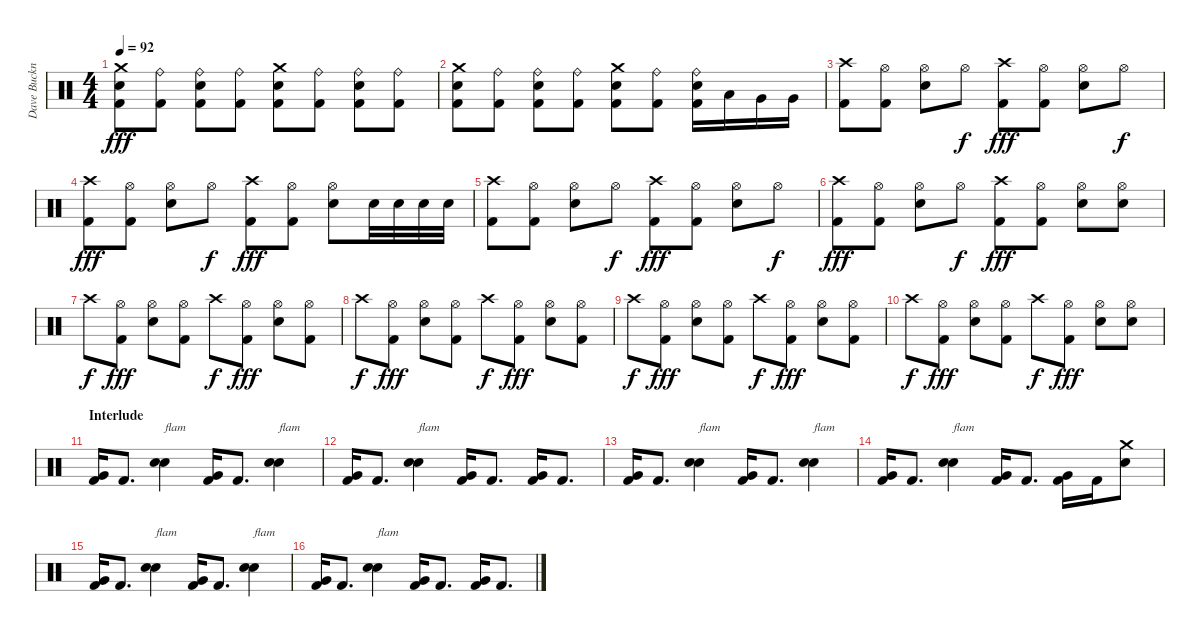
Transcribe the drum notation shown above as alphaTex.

\track ("Dave Buckner" "Dave Buckn") {instrument percussion}
\staff {score}
\articulation defaults
\ts (4 4)
\tempo 92
\clef neutral
\ks c
("Crash medium (hit)" "Electric Snare (hit)" "Kick (hit) 2").8{dy fff} ("Ride (bell)" "Kick (hit) 2").8 ("Ride (bell)" "Electric Snare (hit)" "Kick (hit) 2").8 ("Ride (bell)" "Kick (hit) 2").8 ("Crash medium (hit)" "Electric Snare (hit)" "Kick (hit) 2").8 ("Ride (bell)" "Kick (hit) 2").8 ("Ride (bell)" "Electric Snare (hit)" "Kick (hit) 2").8 ("Ride (bell)" "Kick (hit) 2").8 |
("Crash medium (hit)" "Electric Snare (hit)" "Kick (hit) 2").8 ("Ride (bell)" "Kick (hit) 2").8 ("Ride (bell)" "Electric Snare (hit)" "Kick (hit) 2").8 ("Ride (bell)" "Kick (hit) 2").8 ("Crash medium (hit)" "Electric Snare (hit)" "Kick (hit) 2").8 ("Ride (bell)" "Kick (hit) 2").8 ("Ride (bell)" "Electric Snare (hit)" "Kick (hit) 2").16 "Low Tom (hit)".16 "Very Low Tom (hit)".16 "Very Low Tom (hit)".16 |
("Crash high (hit)" "Kick (hit) 2").8 ("Hi-Hat (open)" "Kick (hit) 2").8 ("Hi-Hat (open)" "Electric Snare (hit)").8 "Hi-Hat (open)".8{dy f} ("Crash high (hit)" "Kick (hit) 2").8{dy fff} ("Hi-Hat (open)" "Kick (hit) 2").8 ("Hi-Hat (open)" "Electric Snare (hit)").8 "Hi-Hat (open)".8{dy f} |
("Crash high (hit)" "Kick (hit) 2").8{dy fff} ("Hi-Hat (open)" "Kick (hit) 2").8 ("Hi-Hat (open)" "Electric Snare (hit)").8 "Hi-Hat (open)".8{dy f} ("Crash high (hit)" "Kick (hit) 2").8{dy fff} ("Hi-Hat (open)" "Kick (hit) 2").8 ("Hi-Hat (open)" "Electric Snare (hit)").8 "Electric Snare (hit)".32 "Electric Snare (hit)".32 "Electric Snare (hit)".32 "Electric Snare (hit)".32 |
("Crash high (hit)" "Kick (hit) 2").8 ("Hi-Hat (open)" "Kick (hit) 2").8 ("Hi-Hat (open)" "Electric Snare (hit)").8 "Hi-Hat (open)".8{dy f} ("Crash high (hit)" "Kick (hit) 2").8{dy fff} ("Hi-Hat (open)" "Kick (hit) 2").8 ("Hi-Hat (open)" "Electric Snare (hit)").8 "Hi-Hat (open)".8{dy f} |
("Crash high (hit)" "Kick (hit) 2").8{dy fff} ("Hi-Hat (open)" "Kick (hit) 2").8 ("Hi-Hat (open)" "Electric Snare (hit)").8 "Hi-Hat (open)".8{dy f} ("Crash high (hit)" "Kick (hit) 2").8{dy fff} ("Hi-Hat (open)" "Kick (hit) 2").8 ("Hi-Hat (open)" "Electric Snare (hit)").8 ("Hi-Hat (open)" "Electric Snare (hit)").8 |
"Crash high (hit)".8{dy f} ("Hi-Hat (open)" "Kick (hit) 2").8{dy fff} ("Hi-Hat (open)" "Electric Snare (hit)").8 ("Hi-Hat (open)" "Kick (hit) 2").8 "Crash high (hit)".8{dy f} ("Hi-Hat (open)" "Kick (hit) 2").8{dy fff} ("Hi-Hat (open)" "Electric Snare (hit)").8 ("Hi-Hat (open)" "Kick (hit) 2").8 |
"Crash high (hit)".8{dy f} ("Hi-Hat (open)" "Kick (hit) 2").8{dy fff} ("Hi-Hat (open)" "Electric Snare (hit)").8 ("Hi-Hat (open)" "Kick (hit) 2").8 "Crash high (hit)".8{dy f} ("Hi-Hat (open)" "Kick (hit) 2").8{dy fff} ("Hi-Hat (open)" "Electric Snare (hit)").8 ("Hi-Hat (open)" "Kick (hit) 2").8 |
"Crash high (hit)".8{dy f} ("Hi-Hat (open)" "Kick (hit) 2").8{dy fff} ("Hi-Hat (open)" "Electric Snare (hit)").8 ("Hi-Hat (open)" "Kick (hit) 2").8 "Crash high (hit)".8{dy f} ("Hi-Hat (open)" "Kick (hit) 2").8{dy fff} ("Hi-Hat (open)" "Electric Snare (hit)").8 ("Hi-Hat (open)" "Kick (hit) 2").8 |
"Crash high (hit)".8{dy f} ("Hi-Hat (open)" "Kick (hit) 2").8{dy fff} ("Hi-Hat (open)" "Electric Snare (hit)").8 ("Hi-Hat (open)" "Kick (hit) 2").8 "Crash high (hit)".8{dy f} ("Hi-Hat (open)" "Kick (hit) 2").8{dy fff} ("Hi-Hat (open)" "Electric Snare (hit)").8 ("Hi-Hat (open)" "Electric Snare (hit)").8 |
\section ("" "Interlude")
("Very Low Tom (hit)" "Kick (hit) 2").16 "Kick (hit) 2".8{d} ("Electric Snare (hit)" "Electric Snare (hit)").4{bd 120 txt "flam"} ("Very Low Tom (hit)" "Kick (hit) 2").16 "Kick (hit) 2".8{d} ("Electric Snare (hit)" "Electric Snare (hit)").4{bd 120 txt "flam"} |
("Very Low Tom (hit)" "Kick (hit) 2").16 "Kick (hit) 2".8{d} ("Electric Snare (hit)" "Electric Snare (hit)").4{bd 120 txt "flam"} ("Very Low Tom (hit)" "Kick (hit) 2").16 "Kick (hit) 2".8{d} ("Very Low Tom (hit)" "Kick (hit) 2").16 "Kick (hit) 2".8{d} |
("Very Low Tom (hit)" "Kick (hit) 2").16 "Kick (hit) 2".8{d} ("Electric Snare (hit)" "Electric Snare (hit)").4{bd 120 txt "flam"} ("Very Low Tom (hit)" "Kick (hit) 2").16 "Kick (hit) 2".8{d} ("Electric Snare (hit)" "Electric Snare (hit)").4{bd 120 txt "flam"} |
("Very Low Tom (hit)" "Kick (hit) 2").16 "Kick (hit) 2".8{d} ("Electric Snare (hit)" "Electric Snare (hit)").4{bd 120 txt "flam"} ("Very Low Tom (hit)" "Kick (hit) 2").16 "Kick (hit) 2".8{d} ("Very Low Tom (hit)" "Kick (hit) 2").16 "Kick (hit) 2".16 ("Crash medium (hit)" "Electric Snare (hit)").8 |
("Very Low Tom (hit)" "Kick (hit) 2").16 "Kick (hit) 2".8{d} ("Electric Snare (hit)" "Electric Snare (hit)").4{bd 120 txt "flam"} ("Very Low Tom (hit)" "Kick (hit) 2").16 "Kick (hit) 2".8{d} ("Electric Snare (hit)" "Electric Snare (hit)").4{bd 120 txt "flam"} |
("Very Low Tom (hit)" "Kick (hit) 2").16 "Kick (hit) 2".8{d} ("Electric Snare (hit)" "Electric Snare (hit)").4{bd 120 txt "flam"} ("Very Low Tom (hit)" "Kick (hit) 2").16 "Kick (hit) 2".8{d} ("Very Low Tom (hit)" "Kick (hit) 2").16 "Kick (hit) 2".8{d}
